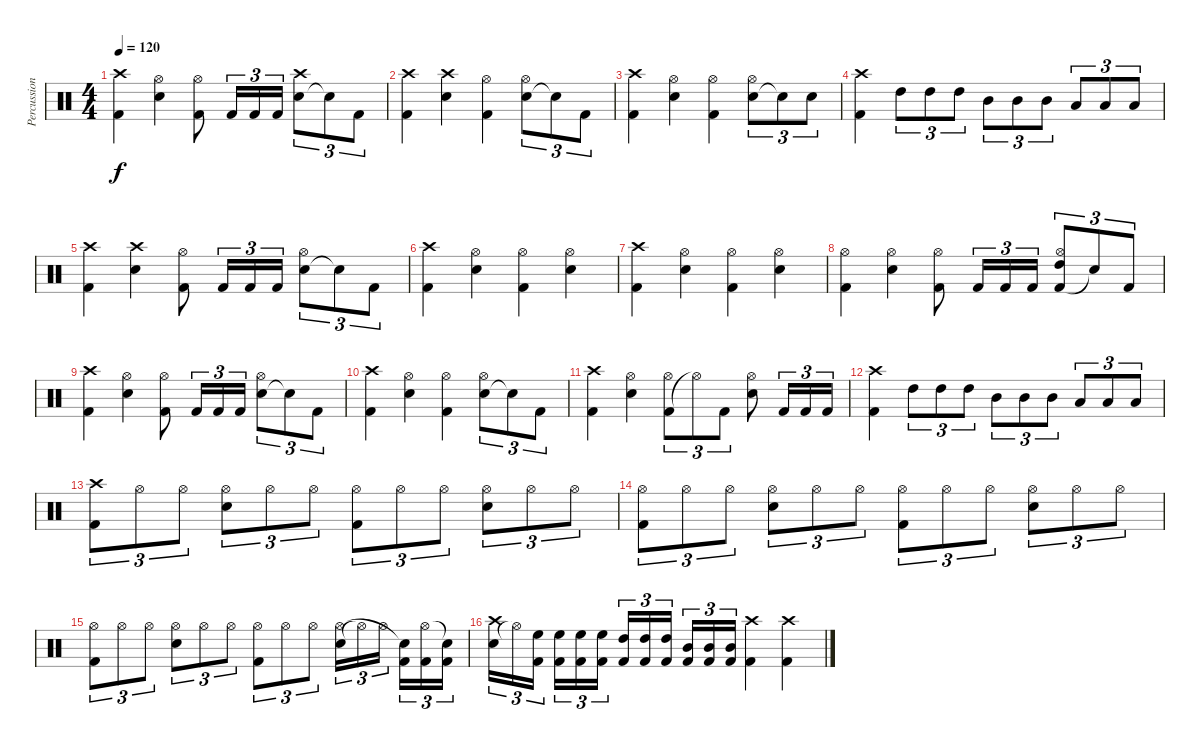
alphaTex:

\track ("Percussions" "Percussion") {instrument percussion}
\staff {score}
\articulation defaults
\ts (4 4)
\tempo 120
\clef neutral
\ks c
("Kick (hit) 2" "Crash high (hit)").4{dy f} ("Snare (hit) 2" "Hi-Hat (open)").4 ("Kick (hit) 2" "Hi-Hat (open)").8 "Kick (hit) 2".16{tu (3 2)} "Kick (hit) 2".16{tu (3 2)} "Kick (hit) 2".16{tu (3 2)} ("Snare (hit) 2" "Crash high (hit)").8{tu (3 2)} "Snare (hit)"{t}.8{tu (3 2)} "Kick (hit) 2".8{tu (3 2)} |
("Kick (hit) 2" "Crash high (hit)").4 ("Snare (hit) 2" "Crash high (hit)").4 ("Kick (hit) 2" "Hi-Hat (open)").4 ("Snare (hit) 2" "Hi-Hat (open)").8{tu (3 2)} "Snare (hit)"{t}.8{tu (3 2)} "Kick (hit) 2".8{tu (3 2)} |
("Kick (hit) 2" "Crash high (hit)").4 ("Snare (hit) 2" "Hi-Hat (open)").4 ("Kick (hit) 2" "Hi-Hat (open)").4 ("Snare (hit) 2" "Hi-Hat (open)").8{tu (3 2)} "Snare (hit)"{t}.8{tu (3 2)} "Snare (hit) 2".8{tu (3 2)} |
("Kick (hit) 2" "Crash high (hit)").4 "High Tom (hit)".8{tu (3 2)} "High Tom (hit)".8{tu (3 2)} "High Tom (hit)".8{tu (3 2)} "Mid Tom (hit)".8{tu (3 2)} "Mid Tom (hit)".8{tu (3 2)} "Mid Tom (hit)".8{tu (3 2)} "Low Tom (hit)".8{tu (3 2)} "Low Tom (hit)".8{tu (3 2)} "Low Tom (hit)".8{tu (3 2)} |
("Kick (hit) 2" "Crash high (hit)").4 ("Snare (hit) 2" "Crash high (hit)").4 ("Kick (hit) 2" "Hi-Hat (open)").8 "Kick (hit) 2".16{tu (3 2)} "Kick (hit) 2".16{tu (3 2)} "Kick (hit) 2".16{tu (3 2)} ("Snare (hit) 2" "Hi-Hat (open)").8{tu (3 2)} "Snare (hit)"{t}.8{tu (3 2)} "Kick (hit) 2".8{tu (3 2)} |
("Kick (hit) 2" "Crash high (hit)").4 ("Snare (hit) 2" "Hi-Hat (open)").4 ("Kick (hit) 2" "Hi-Hat (open)").4 ("Snare (hit) 2" "Hi-Hat (open)").4 |
("Kick (hit) 2" "Crash high (hit)").4 ("Snare (hit) 2" "Hi-Hat (open)").4 ("Kick (hit) 2" "Hi-Hat (open)").4 ("Snare (hit) 2" "Hi-Hat (open)").4 |
("Kick (hit) 2" "Hi-Hat (open)").4 ("Snare (hit) 2" "Hi-Hat (open)").4 ("Kick (hit) 2" "Hi-Hat (open)").8 "Kick (hit) 2".16{tu (3 2)} "Kick (hit) 2".16{tu (3 2)} "Kick (hit) 2".16{tu (3 2)} ("Kick (hit) 2" "High Tom (hit)" "Hi-Hat (open)").8{tu (3 2)} "Snare (hit)"{t}.8{tu (3 2)} "Kick (hit) 2".8{tu (3 2)} |
("Kick (hit) 2" "Crash high (hit)").4 ("Snare (hit) 2" "Hi-Hat (open)").4 ("Kick (hit) 2" "Hi-Hat (open)").8 "Kick (hit) 2".16{tu (3 2)} "Kick (hit) 2".16{tu (3 2)} "Kick (hit) 2".16{tu (3 2)} ("Snare (hit) 2" "Hi-Hat (open)").8{tu (3 2)} "Snare (hit)"{t}.8{tu (3 2)} "Kick (hit) 2".8{tu (3 2)} |
("Kick (hit) 2" "Crash high (hit)").4 ("Snare (hit) 2" "Hi-Hat (open)").4 ("Kick (hit) 2" "Hi-Hat (open)").4 ("Snare (hit) 2" "Hi-Hat (open)").8{tu (3 2)} "Snare (hit)"{t}.8{tu (3 2)} "Kick (hit) 2".8{tu (3 2)} |
("Kick (hit) 2" "Crash high (hit)").4 ("Snare (hit) 2" "Hi-Hat (open)").4 ("Kick (hit) 2" "Hi-Hat (open)").8{tu (3 2)} "Hi-Hat (open)"{t}.8{tu (3 2)} "Kick (hit) 2".8{tu (3 2)} ("Snare (hit) 2" "Hi-Hat (open)").8 "Kick (hit) 2".16{tu (3 2)} "Kick (hit) 2".16{tu (3 2)} "Kick (hit) 2".16{tu (3 2)} |
("Kick (hit) 2" "Crash high (hit)").4 "High Tom (hit)".8{tu (3 2)} "High Tom (hit)".8{tu (3 2)} "High Tom (hit)".8{tu (3 2)} "Mid Tom (hit)".8{tu (3 2)} "Mid Tom (hit)".8{tu (3 2)} "Mid Tom (hit)".8{tu (3 2)} "Low Tom (hit)".8{tu (3 2)} "Low Tom (hit)".8{tu (3 2)} "Low Tom (hit)".8{tu (3 2)} |
("Kick (hit) 2" "Crash high (hit)").8{tu (3 2)} "Hi-Hat (open)".8{tu (3 2)} "Hi-Hat (open)".8{tu (3 2)} ("Snare (hit) 2" "Hi-Hat (open)").8{tu (3 2)} "Hi-Hat (open)".8{tu (3 2)} "Hi-Hat (open)".8{tu (3 2)} ("Kick (hit) 2" "Hi-Hat (open)").8{tu (3 2)} "Hi-Hat (open)".8{tu (3 2)} "Hi-Hat (open)".8{tu (3 2)} ("Snare (hit) 2" "Hi-Hat (open)").8{tu (3 2)} "Hi-Hat (open)".8{tu (3 2)} "Hi-Hat (open)".8{tu (3 2)} |
("Kick (hit) 2" "Hi-Hat (open)").8{tu (3 2)} "Hi-Hat (open)".8{tu (3 2)} "Hi-Hat (open)".8{tu (3 2)} ("Snare (hit) 2" "Hi-Hat (open)").8{tu (3 2)} "Hi-Hat (open)".8{tu (3 2)} "Hi-Hat (open)".8{tu (3 2)} ("Kick (hit) 2" "Hi-Hat (open)").8{tu (3 2)} "Hi-Hat (open)".8{tu (3 2)} "Hi-Hat (open)".8{tu (3 2)} ("Snare (hit) 2" "Hi-Hat (open)").8{tu (3 2)} "Hi-Hat (open)".8{tu (3 2)} "Hi-Hat (open)".8{tu (3 2)} |
("Kick (hit) 2" "Hi-Hat (open)").8{tu (3 2)} "Hi-Hat (open)".8{tu (3 2)} "Hi-Hat (open)".8{tu (3 2)} ("Snare (hit) 2" "Hi-Hat (open)").8{tu (3 2)} "Hi-Hat (open)".8{tu (3 2)} "Hi-Hat (open)".8{tu (3 2)} ("Kick (hit) 2" "Hi-Hat (open)").8{tu (3 2)} "Hi-Hat (open)".8{tu (3 2)} "Hi-Hat (open)".8{tu (3 2)} ("Snare (hit) 2" "Hi-Hat (open)").16{tu (3 2)} "Hi-Hat (open)"{t}.16{tu (3 2)} "Hi-Hat (open)".16{tu (3 2)} ("Kick (hit) 2" "Snare (hit)"{t}).16{tu (3 2)} ("Kick (hit) 2" "Hi-Hat (open)").16{tu (3 2)} ("Kick (hit) 2" "Snare (hit)"{t}).16{tu (3 2)} |
("Snare (hit) 2" "Crash high (hit)").16{tu (3 2)} "Hi-Hat (open)"{t}.16{tu (3 2)} ("Kick (hit) 2" "High Floor Tom (hit)").16{tu (3 2)} ("Kick (hit) 2" "High Floor Tom (hit)").16{tu (3 2)} ("Kick (hit) 2" "High Floor Tom (hit)").16{tu (3 2)} ("Kick (hit) 2" "High Floor Tom (hit)").16{tu (3 2)} ("Kick (hit) 2" "High Tom (hit)").16{tu (3 2)} ("Kick (hit) 2" "High Tom (hit)").16{tu (3 2)} ("Kick (hit) 2" "High Tom (hit)").16{tu (3 2)} ("Kick (hit) 2" "Mid Tom (hit)").16{tu (3 2)} ("Kick (hit) 2" "Mid Tom (hit)").16{tu (3 2)} ("Kick (hit) 2" "Mid Tom (hit)").16{tu (3 2)} ("Kick (hit) 2" "Crash high (hit)").4 ("Kick (hit) 2" "Crash high (hit)").4
